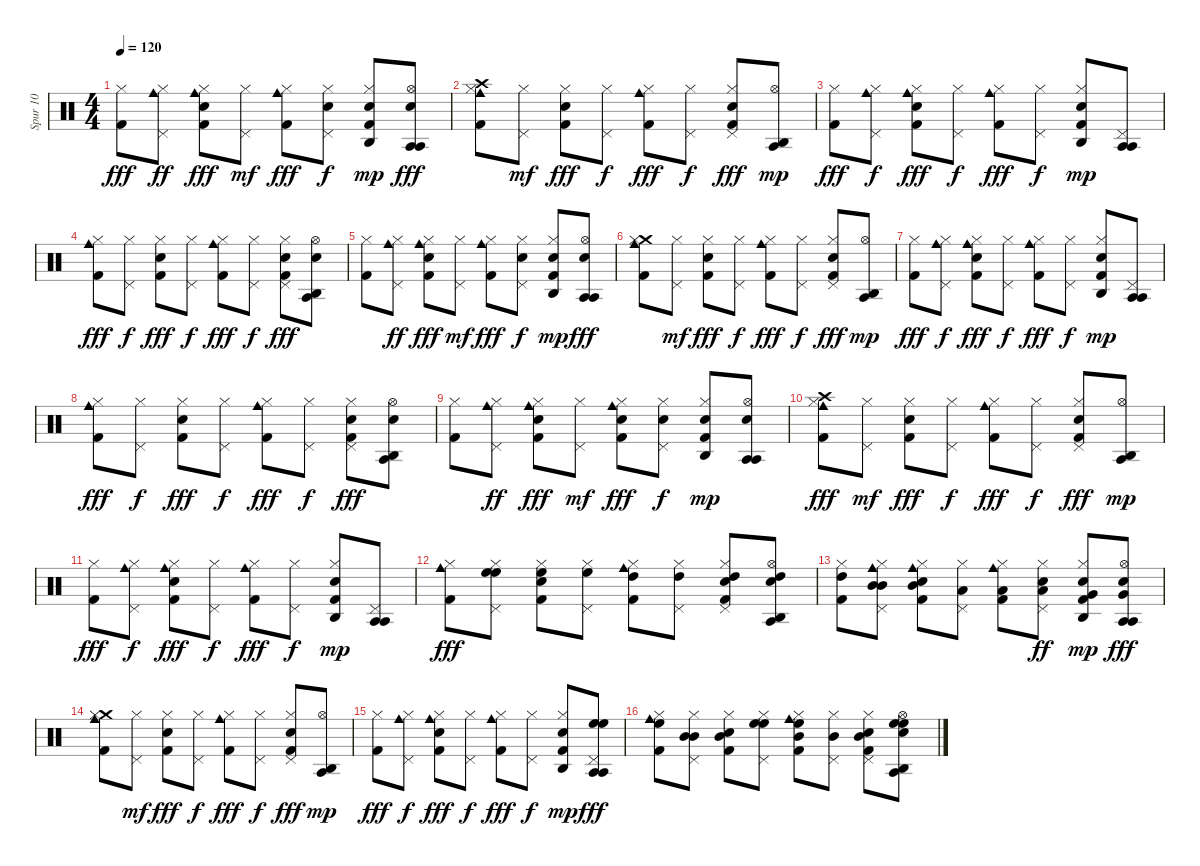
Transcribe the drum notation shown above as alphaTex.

\track ("Spur 10" "Spur 10") {instrument percussion}
\staff {score}
\articulation defaults
\ts (4 4)
\tempo 120
\clef neutral
\ks c
("Kick (hit) 2" "Hi-Hat (closed)").8{dy fff} ("Cowbell medium (hit)" "Hi-Hat (closed)" "Pedal Hi-Hat (hit)").8{dy ff} ("Electric Snare (hit)" "Kick (hit) 2" "Hi-Hat (closed)" "Cowbell medium (hit)").8{dy fff} ("Hi-Hat (closed)" "Pedal Hi-Hat (hit)").8{dy mf} ("Cowbell medium (hit)" "Hi-Hat (closed)" "Kick (hit) 2").8{dy fff} ("Hi-Hat (closed)" "Pedal Hi-Hat (hit)" "Electric Snare (hit)").8{dy f} ("Hi-Hat (closed)" "Kick (hit) 2" "Electric Snare (hit)" "Agogo high (hit)").8{dy mp} ("Agogo tow (hit)" "Hi-Hat (open)" "Agogo tow (hit)" "Electric Snare (hit)").8{dy fff} |
("Cowbell medium (hit)" "Crash high (hit)" "Hi-Hat (closed)" "Kick (hit) 2").8 ("Hi-Hat (closed)" "Pedal Hi-Hat (hit)").8{dy mf} ("Electric Snare (hit)" "Kick (hit) 2" "Hi-Hat (closed)").8{dy fff} ("Hi-Hat (closed)" "Pedal Hi-Hat (hit)").8{dy f} ("Cowbell medium (hit)" "Kick (hit) 2" "Hi-Hat (closed)").8{dy fff} ("Hi-Hat (closed)" "Pedal Hi-Hat (hit)").8{dy f} ("Kick (hit) 2" "Electric Snare (hit)" "Hi-Hat (closed)" "Pedal Hi-Hat (hit)").8{dy fff} ("Agogo high (hit)" "Hi-Hat (open)" "Agogo tow (hit)").8{dy mp} |
("Kick (hit) 2" "Hi-Hat (closed)").8{dy fff} ("Cowbell medium (hit)" "Hi-Hat (closed)" "Pedal Hi-Hat (hit)").8{dy f} ("Hi-Hat (closed)" "Kick (hit) 2" "Electric Snare (hit)" "Cowbell medium (hit)").8{dy fff} ("Hi-Hat (closed)" "Pedal Hi-Hat (hit)").8{dy f} ("Cowbell medium (hit)" "Kick (hit) 2" "Hi-Hat (closed)").8{dy fff} ("Hi-Hat (closed)" "Pedal Hi-Hat (hit)").8{dy f} ("Electric Snare (hit)" "Kick (hit) 2" "Hi-Hat (closed)" "Agogo high (hit)").8{dy mp} ("Agogo tow (hit)" "Pedal Hi-Hat (hit)" "Agogo tow (hit)").8 |
("Cowbell medium (hit)" "Kick (hit) 2" "Hi-Hat (closed)").8{dy fff} ("Hi-Hat (closed)" "Pedal Hi-Hat (hit)").8{dy f} ("Electric Snare (hit)" "Kick (hit) 2" "Hi-Hat (closed)").8{dy fff} ("Hi-Hat (closed)" "Pedal Hi-Hat (hit)").8{dy f} ("Cowbell medium (hit)" "Hi-Hat (closed)" "Kick (hit) 2").8{dy fff} ("Hi-Hat (closed)" "Pedal Hi-Hat (hit)").8{dy f} ("Kick (hit) 2" "Electric Snare (hit)" "Hi-Hat (closed)" "Pedal Hi-Hat (hit)").8{dy fff} ("Agogo high (hit)" "Hi-Hat (open)" "Agogo tow (hit)" "Electric Snare (hit)").8 |
("Kick (hit) 2" "Hi-Hat (closed)").8 ("Cowbell medium (hit)" "Hi-Hat (closed)" "Pedal Hi-Hat (hit)").8{dy ff} ("Electric Snare (hit)" "Kick (hit) 2" "Hi-Hat (closed)" "Cowbell medium (hit)").8{dy fff} ("Hi-Hat (closed)" "Pedal Hi-Hat (hit)").8{dy mf} ("Cowbell medium (hit)" "Hi-Hat (closed)" "Kick (hit) 2").8{dy fff} ("Hi-Hat (closed)" "Pedal Hi-Hat (hit)" "Electric Snare (hit)").8{dy f} ("Hi-Hat (closed)" "Kick (hit) 2" "Electric Snare (hit)" "Agogo high (hit)").8{dy mp} ("Agogo tow (hit)" "Hi-Hat (open)" "Agogo tow (hit)" "Electric Snare (hit)").8{dy fff} |
("Cowbell medium (hit)" "Crash medium (hit)" "Hi-Hat (closed)" "Kick (hit) 2").8 ("Hi-Hat (closed)" "Pedal Hi-Hat (hit)").8{dy mf} ("Electric Snare (hit)" "Kick (hit) 2" "Hi-Hat (closed)").8{dy fff} ("Hi-Hat (closed)" "Pedal Hi-Hat (hit)").8{dy f} ("Cowbell medium (hit)" "Kick (hit) 2" "Hi-Hat (closed)").8{dy fff} ("Hi-Hat (closed)" "Pedal Hi-Hat (hit)").8{dy f} ("Kick (hit) 2" "Electric Snare (hit)" "Hi-Hat (closed)" "Pedal Hi-Hat (hit)").8{dy fff} ("Agogo high (hit)" "Hi-Hat (open)" "Agogo tow (hit)").8{dy mp} |
("Kick (hit) 2" "Hi-Hat (closed)").8{dy fff} ("Cowbell medium (hit)" "Hi-Hat (closed)" "Pedal Hi-Hat (hit)").8{dy f} ("Hi-Hat (closed)" "Kick (hit) 2" "Electric Snare (hit)" "Cowbell medium (hit)").8{dy fff} ("Hi-Hat (closed)" "Pedal Hi-Hat (hit)").8{dy f} ("Cowbell medium (hit)" "Kick (hit) 2" "Hi-Hat (closed)").8{dy fff} ("Hi-Hat (closed)" "Pedal Hi-Hat (hit)").8{dy f} ("Electric Snare (hit)" "Kick (hit) 2" "Hi-Hat (closed)" "Agogo high (hit)").8{dy mp} ("Agogo tow (hit)" "Pedal Hi-Hat (hit)" "Agogo tow (hit)").8 |
("Cowbell medium (hit)" "Kick (hit) 2" "Hi-Hat (closed)").8{dy fff} ("Hi-Hat (closed)" "Pedal Hi-Hat (hit)").8{dy f} ("Electric Snare (hit)" "Kick (hit) 2" "Hi-Hat (closed)").8{dy fff} ("Hi-Hat (closed)" "Pedal Hi-Hat (hit)").8{dy f} ("Cowbell medium (hit)" "Hi-Hat (closed)" "Kick (hit) 2").8{dy fff} ("Hi-Hat (closed)" "Pedal Hi-Hat (hit)").8{dy f} ("Kick (hit) 2" "Electric Snare (hit)" "Hi-Hat (closed)" "Pedal Hi-Hat (hit)").8{dy fff} ("Agogo high (hit)" "Hi-Hat (open)" "Agogo tow (hit)" "Electric Snare (hit)").8 |
("Kick (hit) 2" "Hi-Hat (closed)").8 ("Cowbell medium (hit)" "Hi-Hat (closed)" "Pedal Hi-Hat (hit)").8{dy ff} ("Electric Snare (hit)" "Kick (hit) 2" "Hi-Hat (closed)" "Cowbell medium (hit)").8{dy fff} ("Hi-Hat (closed)" "Pedal Hi-Hat (hit)").8{dy mf} ("Cowbell medium (hit)" "Electric Snare (hit)" "Hi-Hat (closed)" "Kick (hit) 2").8{dy fff} ("Hi-Hat (closed)" "Pedal Hi-Hat (hit)" "Electric Snare (hit)").8{dy f} ("Hi-Hat (closed)" "Kick (hit) 2" "Electric Snare (hit)" "Agogo high (hit)").8{dy mp} ("Agogo tow (hit)" "Electric Snare (hit)" "Hi-Hat (open)" "Agogo tow (hit)").8 |
("Cowbell medium (hit)" "Crash high (hit)" "Hi-Hat (closed)" "Kick (hit) 2").8{dy fff} ("Hi-Hat (closed)" "Pedal Hi-Hat (hit)").8{dy mf} ("Electric Snare (hit)" "Kick (hit) 2" "Hi-Hat (closed)").8{dy fff} ("Hi-Hat (closed)" "Pedal Hi-Hat (hit)").8{dy f} ("Cowbell medium (hit)" "Kick (hit) 2" "Hi-Hat (closed)").8{dy fff} ("Hi-Hat (closed)" "Pedal Hi-Hat (hit)").8{dy f} ("Kick (hit) 2" "Electric Snare (hit)" "Hi-Hat (closed)" "Pedal Hi-Hat (hit)").8{dy fff} ("Agogo high (hit)" "Hi-Hat (open)" "Agogo tow (hit)").8{dy mp} |
("Kick (hit) 2" "Hi-Hat (closed)").8{dy fff} ("Cowbell medium (hit)" "Hi-Hat (closed)" "Pedal Hi-Hat (hit)").8{dy f} ("Hi-Hat (closed)" "Kick (hit) 2" "Electric Snare (hit)" "Cowbell medium (hit)").8{dy fff} ("Hi-Hat (closed)" "Pedal Hi-Hat (hit)").8{dy f} ("Cowbell medium (hit)" "Kick (hit) 2" "Hi-Hat (closed)").8{dy fff} ("Hi-Hat (closed)" "Pedal Hi-Hat (hit)").8{dy f} ("Electric Snare (hit)" "Kick (hit) 2" "Hi-Hat (closed)" "Agogo high (hit)").8{dy mp} ("Agogo tow (hit)" "Pedal Hi-Hat (hit)" "Agogo tow (hit)").8 |
("Cowbell medium (hit)" "Kick (hit) 2" "Hi-Hat (closed)").8{dy fff} ("Hi-Hat (closed)" "High Floor Tom (hit)" "High Floor Tom (hit)" "Pedal Hi-Hat (hit)").8 ("Electric Snare (hit)" "Kick (hit) 2" "Hi-Hat (closed)" "High Floor Tom (hit)").8 ("Hi-Hat (closed)" "High Floor Tom (hit)" "Pedal Hi-Hat (hit)").8 ("Cowbell medium (hit)" "Hi-Hat (closed)" "Kick (hit) 2" "High Tom (hit)").8 ("Hi-Hat (closed)" "High Tom (hit)" "Pedal Hi-Hat (hit)").8 ("High Tom (hit)" "Kick (hit) 2" "Electric Snare (hit)" "Hi-Hat (closed)" "Pedal Hi-Hat (hit)").8 ("Agogo high (hit)" "Hi-Hat (open)" "High Tom (hit)" "Agogo tow (hit)" "Electric Snare (hit)").8 |
("High Tom (hit)" "Kick (hit) 2" "Hi-Hat (closed)").8 ("Cowbell medium (hit)" "Mid Tom (hit)" "Hi-Hat (closed)" "Pedal Hi-Hat (hit)" "Mid Tom (hit)").8 ("Electric Snare (hit)" "Kick (hit) 2" "Hi-Hat (closed)" "Cowbell medium (hit)" "Mid Tom (hit)").8 ("Hi-Hat (closed)" "Pedal Hi-Hat (hit)" "Low Tom (hit)").8 ("Cowbell medium (hit)" "Hi-Hat (closed)" "Kick (hit) 2" "Low Tom (hit)").8 ("Hi-Hat (closed)" "Low Tom (hit)" "Pedal Hi-Hat (hit)" "Electric Snare (hit)").8{dy ff} ("Very Low Tom (hit)" "Hi-Hat (closed)" "Kick (hit) 2" "Electric Snare (hit)" "Agogo high (hit)").8{dy mp} ("Agogo tow (hit)" "Very Low Tom (hit)" "Hi-Hat (open)" "Agogo tow (hit)" "Electric Snare (hit)").8{dy fff} |
("Cowbell medium (hit)" "Crash medium (hit)" "Hi-Hat (closed)" "Kick (hit) 2").8 ("Hi-Hat (closed)" "Pedal Hi-Hat (hit)").8{dy mf} ("Electric Snare (hit)" "Kick (hit) 2" "Hi-Hat (closed)").8{dy fff} ("Hi-Hat (closed)" "Pedal Hi-Hat (hit)").8{dy f} ("Cowbell medium (hit)" "Kick (hit) 2" "Hi-Hat (closed)").8{dy fff} ("Hi-Hat (closed)" "Pedal Hi-Hat (hit)").8{dy f} ("Kick (hit) 2" "Electric Snare (hit)" "Hi-Hat (closed)" "Pedal Hi-Hat (hit)").8{dy fff} ("Agogo high (hit)" "Hi-Hat (open)" "Agogo tow (hit)").8{dy mp} |
("Kick (hit) 2" "Hi-Hat (closed)").8{dy fff} ("Cowbell medium (hit)" "Hi-Hat (closed)" "Pedal Hi-Hat (hit)").8{dy f} ("Hi-Hat (closed)" "Kick (hit) 2" "Electric Snare (hit)" "Cowbell medium (hit)").8{dy fff} ("Hi-Hat (closed)" "Pedal Hi-Hat (hit)").8{dy f} ("Cowbell medium (hit)" "Kick (hit) 2" "Hi-Hat (closed)").8{dy fff} ("Hi-Hat (closed)" "Pedal Hi-Hat (hit)").8{dy f} ("Electric Snare (hit)" "Kick (hit) 2" "Hi-Hat (closed)" "Agogo high (hit)").8{dy mp} ("Agogo tow (hit)" "Pedal Hi-Hat (hit)" "High Floor Tom (hit)" "Agogo tow (hit)" "High Floor Tom (hit)").8{dy fff} |
("Cowbell medium (hit)" "Kick (hit) 2" "Hi-Hat (closed)" "High Floor Tom (hit)").8 ("Mid Tom (hit)" "Hi-Hat (closed)" "Pedal Hi-Hat (hit)" "Mid Tom (hit)").8 ("Mid Tom (hit)" "Electric Snare (hit)" "Kick (hit) 2" "Hi-Hat (closed)").8 ("High Floor Tom (hit)" "Hi-Hat (closed)" "High Floor Tom (hit)" "Pedal Hi-Hat (hit)").8 ("Cowbell medium (hit)" "High Floor Tom (hit)" "Hi-Hat (closed)" "Kick (hit) 2" "Mid Tom (hit)").8 ("Hi-Hat (closed)" "Pedal Hi-Hat (hit)" "Mid Tom (hit)").8 ("Kick (hit) 2" "Electric Snare (hit)" "Hi-Hat (closed)" "Mid Tom (hit)" "Pedal Hi-Hat (hit)").8 ("Agogo high (hit)" "High Floor Tom (hit)" "Hi-Hat (open)" "Agogo tow (hit)" "High Floor Tom (hit)" "Electric Snare (hit)").8
